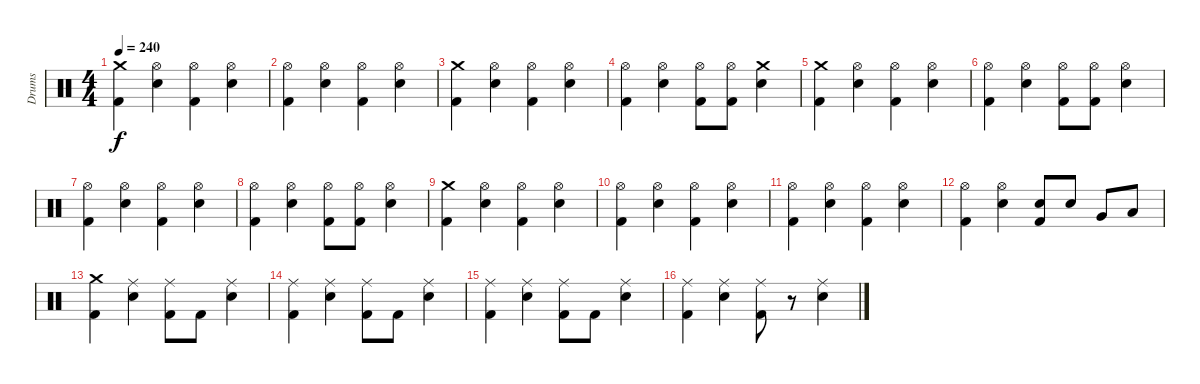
\track ("Drums" "Drums") {instrument percussion}
\staff {score}
\articulation defaults
\ts (4 4)
\tempo 240
\clef neutral
\ks c
("Crash medium (hit)" "Kick (hit) 2").4{dy f} ("Hi-Hat (open)" "Snare (hit) 2").4 ("Hi-Hat (open)" "Kick (hit) 2").4 ("Hi-Hat (open)" "Snare (hit) 2").4 |
("Hi-Hat (open)" "Kick (hit) 2").4 ("Hi-Hat (open)" "Snare (hit) 2").4 ("Hi-Hat (open)" "Kick (hit) 2").4 ("Hi-Hat (open)" "Snare (hit) 2").4 |
("Crash medium (hit)" "Kick (hit) 2").4 ("Hi-Hat (open)" "Snare (hit) 2").4 ("Hi-Hat (open)" "Kick (hit) 2").4 ("Hi-Hat (open)" "Snare (hit) 2").4 |
("Hi-Hat (open)" "Kick (hit) 2").4 ("Hi-Hat (open)" "Snare (hit) 2").4 ("Hi-Hat (open)" "Kick (hit) 2").8 ("Hi-Hat (open)" "Kick (hit) 2").8 ("Crash medium (hit)" "Snare (hit) 2").4 |
("Crash medium (hit)" "Kick (hit) 2").4 ("Hi-Hat (open)" "Snare (hit) 2").4 ("Hi-Hat (open)" "Kick (hit) 2").4 ("Hi-Hat (open)" "Snare (hit) 2").4 |
("Hi-Hat (open)" "Kick (hit) 2").4 ("Hi-Hat (open)" "Snare (hit) 2").4 ("Hi-Hat (open)" "Kick (hit) 2").8 ("Hi-Hat (open)" "Kick (hit) 2").8 ("Hi-Hat (open)" "Snare (hit) 2").4 |
("Hi-Hat (open)" "Kick (hit) 2").4 ("Hi-Hat (open)" "Snare (hit) 2").4 ("Hi-Hat (open)" "Kick (hit) 2").4 ("Hi-Hat (open)" "Snare (hit) 2").4 |
("Hi-Hat (open)" "Kick (hit) 2").4 ("Hi-Hat (open)" "Snare (hit) 2").4 ("Hi-Hat (open)" "Kick (hit) 2").8 ("Hi-Hat (open)" "Kick (hit) 2").8 ("Hi-Hat (open)" "Snare (hit) 2").4 |
("Crash medium (hit)" "Kick (hit) 2").4 ("Hi-Hat (open)" "Snare (hit) 2").4 ("Hi-Hat (open)" "Kick (hit) 2").4 ("Hi-Hat (open)" "Snare (hit) 2").4 |
("Hi-Hat (open)" "Kick (hit) 2").4 ("Hi-Hat (open)" "Snare (hit) 2").4 ("Hi-Hat (open)" "Kick (hit) 2").4 ("Hi-Hat (open)" "Snare (hit) 2").4 |
("Hi-Hat (open)" "Kick (hit) 2").4 ("Hi-Hat (open)" "Snare (hit) 2").4 ("Hi-Hat (open)" "Kick (hit) 2").4 ("Hi-Hat (open)" "Snare (hit) 2").4 |
("Hi-Hat (open)" "Kick (hit) 2").4 ("Hi-Hat (open)" "Snare (hit) 2").4 ("Snare (hit) 2" "Kick (hit) 2").8 "Snare (hit) 2".8 "Very Low Tom (hit)".8 "Low Tom (hit)".8 |
("Crash medium (hit)" "Kick (hit) 2").4 ("Ride (middle)" "Snare (hit) 2").4 ("Ride (middle)" "Kick (hit) 2").8 "Kick (hit) 2".8 ("Ride (middle)" "Snare (hit) 2").4 |
("Ride (middle)" "Kick (hit) 2").4 ("Ride (middle)" "Snare (hit) 2").4 ("Ride (middle)" "Kick (hit) 2").8 "Kick (hit) 2".8 ("Ride (middle)" "Snare (hit) 2").4 |
("Ride (middle)" "Kick (hit) 2").4 ("Ride (middle)" "Snare (hit) 2").4 ("Ride (middle)" "Kick (hit) 2").8 "Kick (hit) 2".8 ("Ride (middle)" "Snare (hit) 2").4 |
("Ride (middle)" "Kick (hit) 2").4 ("Ride (middle)" "Snare (hit) 2").4 ("Ride (middle)" "Kick (hit) 2").8 r.8 ("Ride (middle)" "Snare (hit) 2").4
